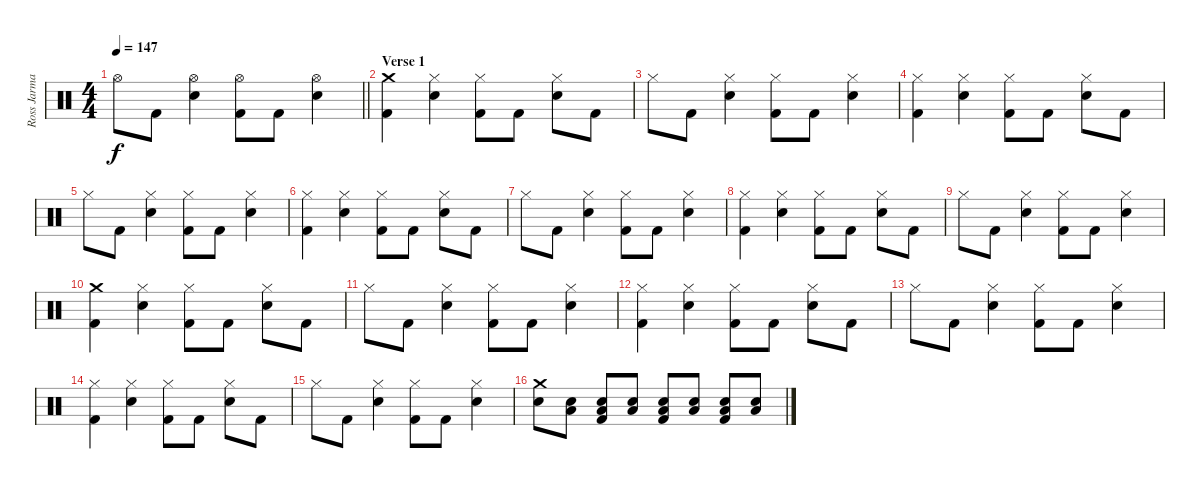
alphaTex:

\track ("Ross Jarman (Drums)" "Ross Jarma") {instrument percussion}
\staff {score}
\articulation defaults
\ts (4 4)
\tempo 147
\clef neutral
\barLineRight lightlight
\ks c "Hi-Hat (open)".8{dy f} "Kick (hit) 2".8
("Hi-Hat (open)" "Electric Snare (hit)").4 ("Hi-Hat (open)" "Kick (hit) 2").8 "Kick (hit) 2".8 ("Hi-Hat (open)" "Electric Snare (hit)").4 |
\section ("" "Verse 1")
("Crash medium (hit)" "Kick (hit) 2").4 ("Hi-Hat (closed)" "Electric Snare (hit)").4 ("Hi-Hat (closed)" "Kick (hit) 2").8 "Kick (hit) 2".8 ("Hi-Hat (closed)" "Electric Snare (hit)").8 "Kick (hit) 2".8 |
"Hi-Hat (closed)".8 "Kick (hit) 2".8 ("Hi-Hat (closed)" "Electric Snare (hit)").4 ("Hi-Hat (closed)" "Kick (hit) 2").8 "Kick (hit) 2".8 ("Hi-Hat (closed)" "Electric Snare (hit)").4 |
("Hi-Hat (closed)" "Kick (hit) 2").4 ("Hi-Hat (closed)" "Electric Snare (hit)").4 ("Hi-Hat (closed)" "Kick (hit) 2").8 "Kick (hit) 2".8 ("Hi-Hat (closed)" "Electric Snare (hit)").8 "Kick (hit) 2".8 |
"Hi-Hat (closed)".8 "Kick (hit) 2".8 ("Hi-Hat (closed)" "Electric Snare (hit)").4 ("Hi-Hat (closed)" "Kick (hit) 2").8 "Kick (hit) 2".8 ("Hi-Hat (closed)" "Electric Snare (hit)").4 |
("Hi-Hat (closed)" "Kick (hit) 2").4 ("Hi-Hat (closed)" "Electric Snare (hit)").4 ("Hi-Hat (closed)" "Kick (hit) 2").8 "Kick (hit) 2".8 ("Hi-Hat (closed)" "Electric Snare (hit)").8 "Kick (hit) 2".8 |
"Hi-Hat (closed)".8 "Kick (hit) 2".8 ("Hi-Hat (closed)" "Electric Snare (hit)").4 ("Hi-Hat (closed)" "Kick (hit) 2").8 "Kick (hit) 2".8 ("Hi-Hat (closed)" "Electric Snare (hit)").4 |
("Hi-Hat (closed)" "Kick (hit) 2").4 ("Hi-Hat (closed)" "Electric Snare (hit)").4 ("Hi-Hat (closed)" "Kick (hit) 2").8 "Kick (hit) 2".8 ("Hi-Hat (closed)" "Electric Snare (hit)").8 "Kick (hit) 2".8 |
"Hi-Hat (closed)".8 "Kick (hit) 2".8 ("Hi-Hat (closed)" "Electric Snare (hit)").4 ("Hi-Hat (closed)" "Kick (hit) 2").8 "Kick (hit) 2".8 ("Hi-Hat (closed)" "Electric Snare (hit)").4 |
("Crash medium (hit)" "Kick (hit) 2").4 ("Hi-Hat (closed)" "Electric Snare (hit)").4 ("Hi-Hat (closed)" "Kick (hit) 2").8 "Kick (hit) 2".8 ("Hi-Hat (closed)" "Electric Snare (hit)").8 "Kick (hit) 2".8 |
"Hi-Hat (closed)".8 "Kick (hit) 2".8 ("Hi-Hat (closed)" "Electric Snare (hit)").4 ("Hi-Hat (closed)" "Kick (hit) 2").8 "Kick (hit) 2".8 ("Hi-Hat (closed)" "Electric Snare (hit)").4 |
("Hi-Hat (closed)" "Kick (hit) 2").4 ("Hi-Hat (closed)" "Electric Snare (hit)").4 ("Hi-Hat (closed)" "Kick (hit) 2").8 "Kick (hit) 2".8 ("Hi-Hat (closed)" "Electric Snare (hit)").8 "Kick (hit) 2".8 |
"Hi-Hat (closed)".8 "Kick (hit) 2".8 ("Hi-Hat (closed)" "Electric Snare (hit)").4 ("Hi-Hat (closed)" "Kick (hit) 2").8 "Kick (hit) 2".8 ("Hi-Hat (closed)" "Electric Snare (hit)").4 |
("Hi-Hat (closed)" "Kick (hit) 2").4 ("Hi-Hat (closed)" "Electric Snare (hit)").4 ("Hi-Hat (closed)" "Kick (hit) 2").8 "Kick (hit) 2".8 ("Hi-Hat (closed)" "Electric Snare (hit)").8 "Kick (hit) 2".8 |
"Hi-Hat (closed)".8 "Kick (hit) 2".8 ("Hi-Hat (closed)" "Electric Snare (hit)").4 ("Hi-Hat (closed)" "Kick (hit) 2").8 "Kick (hit) 2".8 ("Hi-Hat (closed)" "Electric Snare (hit)").4 |
("Crash medium (hit)" "Electric Snare (hit)").8 ("Electric Snare (hit)" "Low Floor Tom (hit)").8 ("Electric Snare (hit)" "Low Floor Tom (hit)" "Kick (hit) 2").8 ("Electric Snare (hit)" "Low Floor Tom (hit)").8 ("Electric Snare (hit)" "Low Floor Tom (hit)" "Kick (hit) 2").8 ("Electric Snare (hit)" "Low Floor Tom (hit)").8 ("Electric Snare (hit)" "Low Floor Tom (hit)" "Kick (hit) 2").8 ("Electric Snare (hit)" "Low Floor Tom (hit)").8
